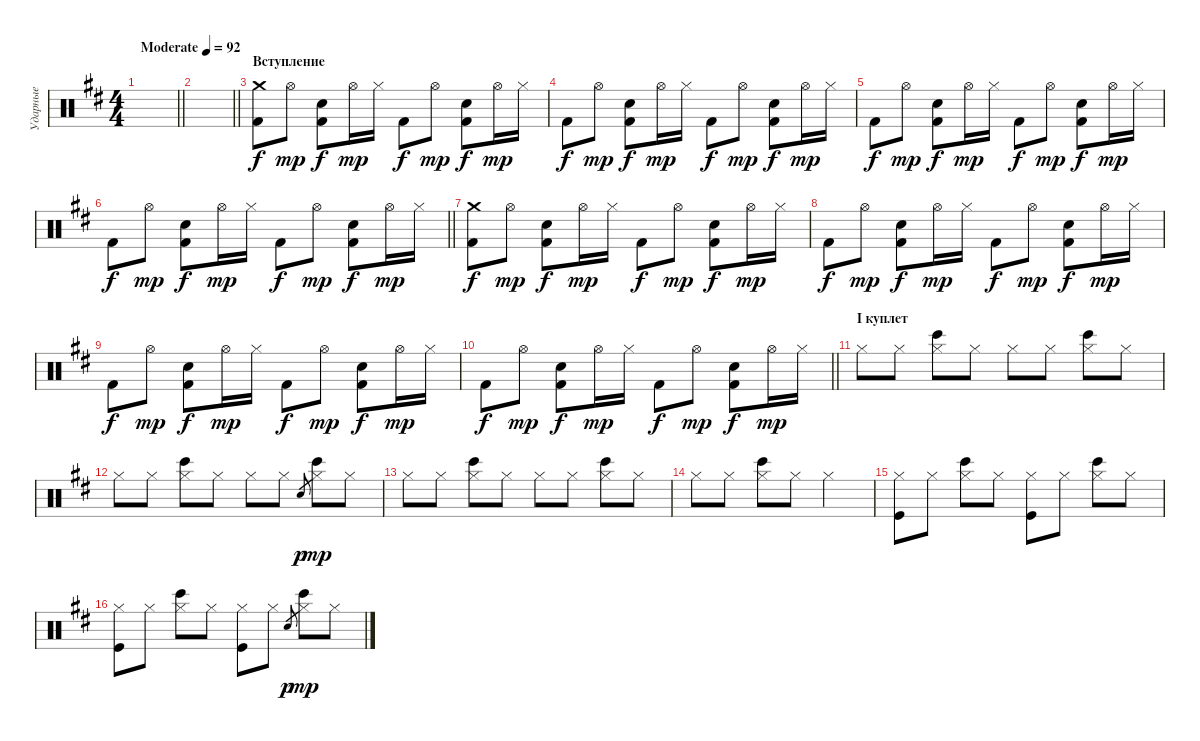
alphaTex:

\track ("Ударные" "Ударные") {instrument percussion}
\staff {score}
\articulation defaults
\ts (4 4)
\section ("" "")
\tempo (92 "Moderate")
\clef neutral
\barLineRight lightlight
\ks bminor
|
\barLineRight lightlight
|
\section ("" "Вступление")
("Crash medium (hit)" "Kick (hit) 2").8 "Hi-Hat (open)".8{dy mp} ("Electric Snare (hit)" "Kick (hit) 2").8{dy f} "Hi-Hat (open)".16{dy mp} "Hi-Hat (closed)".16 "Kick (hit) 2".8{dy f} "Hi-Hat (open)".8{dy mp} ("Electric Snare (hit)" "Kick (hit) 2").8{dy f} "Hi-Hat (open)".16{dy mp} "Hi-Hat (closed)".16 |
"Kick (hit) 2".8{dy f} "Hi-Hat (open)".8{dy mp} ("Electric Snare (hit)" "Kick (hit) 2").8{dy f} "Hi-Hat (open)".16{dy mp} "Hi-Hat (closed)".16 "Kick (hit) 2".8{dy f} "Hi-Hat (open)".8{dy mp} ("Electric Snare (hit)" "Kick (hit) 2").8{dy f} "Hi-Hat (open)".16{dy mp} "Hi-Hat (closed)".16 |
"Kick (hit) 2".8{dy f} "Hi-Hat (open)".8{dy mp} ("Electric Snare (hit)" "Kick (hit) 2").8{dy f} "Hi-Hat (open)".16{dy mp} "Hi-Hat (closed)".16 "Kick (hit) 2".8{dy f} "Hi-Hat (open)".8{dy mp} ("Electric Snare (hit)" "Kick (hit) 2").8{dy f} "Hi-Hat (open)".16{dy mp} "Hi-Hat (closed)".16 |
\barLineRight lightlight "Kick (hit) 2".8{dy f} "Hi-Hat (open)".8{dy mp}
("Electric Snare (hit)" "Kick (hit) 2").8{dy f} "Hi-Hat (open)".16{dy mp} "Hi-Hat (closed)".16 "Kick (hit) 2".8{dy f} "Hi-Hat (open)".8{dy mp} ("Electric Snare (hit)" "Kick (hit) 2").8{dy f} "Hi-Hat (open)".16{dy mp} "Hi-Hat (closed)".16 |
("Crash medium (hit)" "Kick (hit) 2").8{dy f} "Hi-Hat (open)".8{dy mp} ("Electric Snare (hit)" "Kick (hit) 2").8{dy f} "Hi-Hat (open)".16{dy mp} "Hi-Hat (closed)".16 "Kick (hit) 2".8{dy f} "Hi-Hat (open)".8{dy mp} ("Electric Snare (hit)" "Kick (hit) 2").8{dy f} "Hi-Hat (open)".16{dy mp} "Hi-Hat (closed)".16 |
"Kick (hit) 2".8{dy f} "Hi-Hat (open)".8{dy mp} ("Electric Snare (hit)" "Kick (hit) 2").8{dy f} "Hi-Hat (open)".16{dy mp} "Hi-Hat (closed)".16 "Kick (hit) 2".8{dy f} "Hi-Hat (open)".8{dy mp} ("Electric Snare (hit)" "Kick (hit) 2").8{dy f} "Hi-Hat (open)".16{dy mp} "Hi-Hat (closed)".16 |
"Kick (hit) 2".8{dy f} "Hi-Hat (open)".8{dy mp} ("Electric Snare (hit)" "Kick (hit) 2").8{dy f} "Hi-Hat (open)".16{dy mp} "Hi-Hat (closed)".16 "Kick (hit) 2".8{dy f} "Hi-Hat (open)".8{dy mp} ("Electric Snare (hit)" "Kick (hit) 2").8{dy f} "Hi-Hat (open)".16{dy mp} "Hi-Hat (closed)".16 |
\barLineRight lightlight "Kick (hit) 2".8{dy f} "Hi-Hat (open)".8{dy mp}
("Electric Snare (hit)" "Kick (hit) 2").8{dy f} "Hi-Hat (open)".16{dy mp} "Hi-Hat (closed)".16 "Kick (hit) 2".8{dy f} "Hi-Hat (open)".8{dy mp} ("Electric Snare (hit)" "Kick (hit) 2").8{dy f} "Hi-Hat (open)".16{dy mp} "Hi-Hat (closed)".16 |
\section ("" "I куплет")
"Hi-Hat (closed)".8{volume 13} "Hi-Hat (closed)".8 ("Hi-Hat (closed)" "Bongo High (hit)").8 "Hi-Hat (closed)".8 "Hi-Hat (closed)".8 "Hi-Hat (closed)".8 ("Hi-Hat (closed)" "Bongo High (hit)").8 "Hi-Hat (closed)".8 |
"Hi-Hat (closed)".8{volume 13} "Hi-Hat (closed)".8 ("Hi-Hat (closed)" "Bongo High (hit)").8 "Hi-Hat (closed)".8 "Hi-Hat (closed)".8 "Hi-Hat (closed)".8 "Snare (hit)".8{gr dy p} ("Hi-Hat (closed)" "Bongo High (hit)").8{dy mp} "Hi-Hat (closed)".8 |
"Hi-Hat (closed)".8{volume 13} "Hi-Hat (closed)".8 ("Hi-Hat (closed)" "Bongo High (hit)").8 "Hi-Hat (closed)".8 "Hi-Hat (closed)".8 "Hi-Hat (closed)".8 ("Hi-Hat (closed)" "Bongo High (hit)").8 "Hi-Hat (closed)".8 |
"Hi-Hat (closed)".8{volume 13} "Hi-Hat (closed)".8 ("Hi-Hat (closed)" "Bongo High (hit)").8 "Hi-Hat (closed)".8 "Hi-Hat (closed)".2 |
("Hi-Hat (closed)" "Kick (hit)").8{volume 13} "Hi-Hat (closed)".8 ("Hi-Hat (closed)" "Bongo High (hit)").8 "Hi-Hat (closed)".8 ("Hi-Hat (closed)" "Kick (hit)").8 "Hi-Hat (closed)".8 ("Hi-Hat (closed)" "Bongo High (hit)").8 "Hi-Hat (closed)".8 |
("Hi-Hat (closed)" "Kick (hit)").8{volume 13} "Hi-Hat (closed)".8 ("Hi-Hat (closed)" "Bongo High (hit)").8 "Hi-Hat (closed)".8 ("Hi-Hat (closed)" "Kick (hit)").8 "Hi-Hat (closed)".8 "Snare (hit)".8{gr dy p} ("Hi-Hat (closed)" "Bongo High (hit)").8{dy mp} "Hi-Hat (closed)".8
